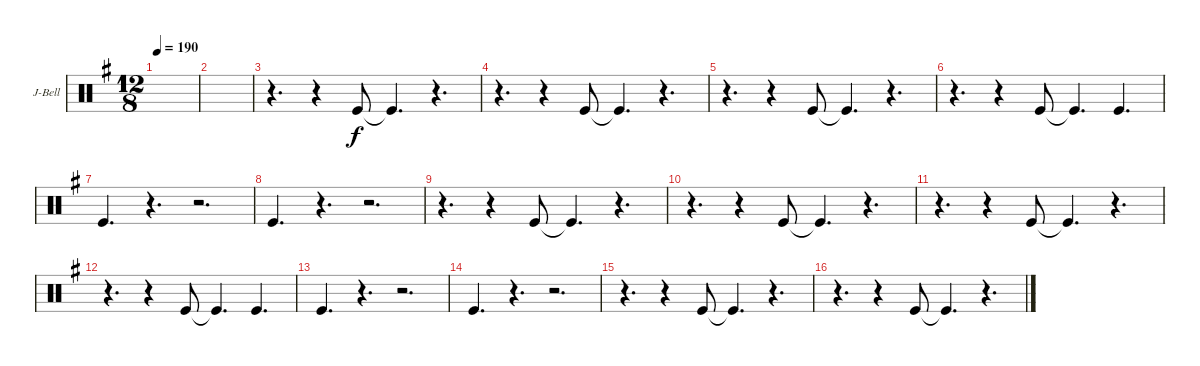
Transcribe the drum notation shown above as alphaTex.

\defaultSystemsLayout 4
\bracketExtendMode groupsimilarinstruments
\firstSystemTrackNameOrientation horizontal
\otherSystemsTrackNameOrientation horizontal
\track ("Jingle Bell" "J-Bell") {instrument percussion}
\staff {score}
\articulation defaults
\ts (12 8)
\tempo 190
\clef neutral
\scale
0.504425
\ks g
|
\scale
0.247788 |
\scale
0.247788 r.4{d} r.4 "Kick (hit)".8 "Kick (hit)"{t}.4{d} r.4{d} |
r.4{d} r.4 "Kick (hit)".8 "Kick (hit)"{t}.4{d} r.4{d} |
r.4{d} r.4 "Kick (hit)".8 "Kick (hit)"{t}.4{d} r.4{d} |
r.4{d} r.4 "Kick (hit)".8 "Kick (hit)"{t}.4{d} "Kick (hit)".4{d} |
"Kick (hit)".4{d} r.4{d} r.2{d} |
"Kick (hit)".4{d} r.4{d} r.2{d} |
r.4{d} r.4 "Kick (hit)".8 "Kick (hit)"{t}.4{d} r.4{d} |
r.4{d} r.4 "Kick (hit)".8 "Kick (hit)"{t}.4{d} r.4{d} |
r.4{d} r.4 "Kick (hit)".8 "Kick (hit)"{t}.4{d} r.4{d} |
r.4{d} r.4 "Kick (hit)".8 "Kick (hit)"{t}.4{d} "Kick (hit)".4{d} |
"Kick (hit)".4{d} r.4{d} r.2{d} |
"Kick (hit)".4{d} r.4{d} r.2{d} |
r.4{d} r.4 "Kick (hit)".8 "Kick (hit)"{t}.4{d} r.4{d} |
r.4{d} r.4 "Kick (hit)".8 "Kick (hit)"{t}.4{d} r.4{d}
